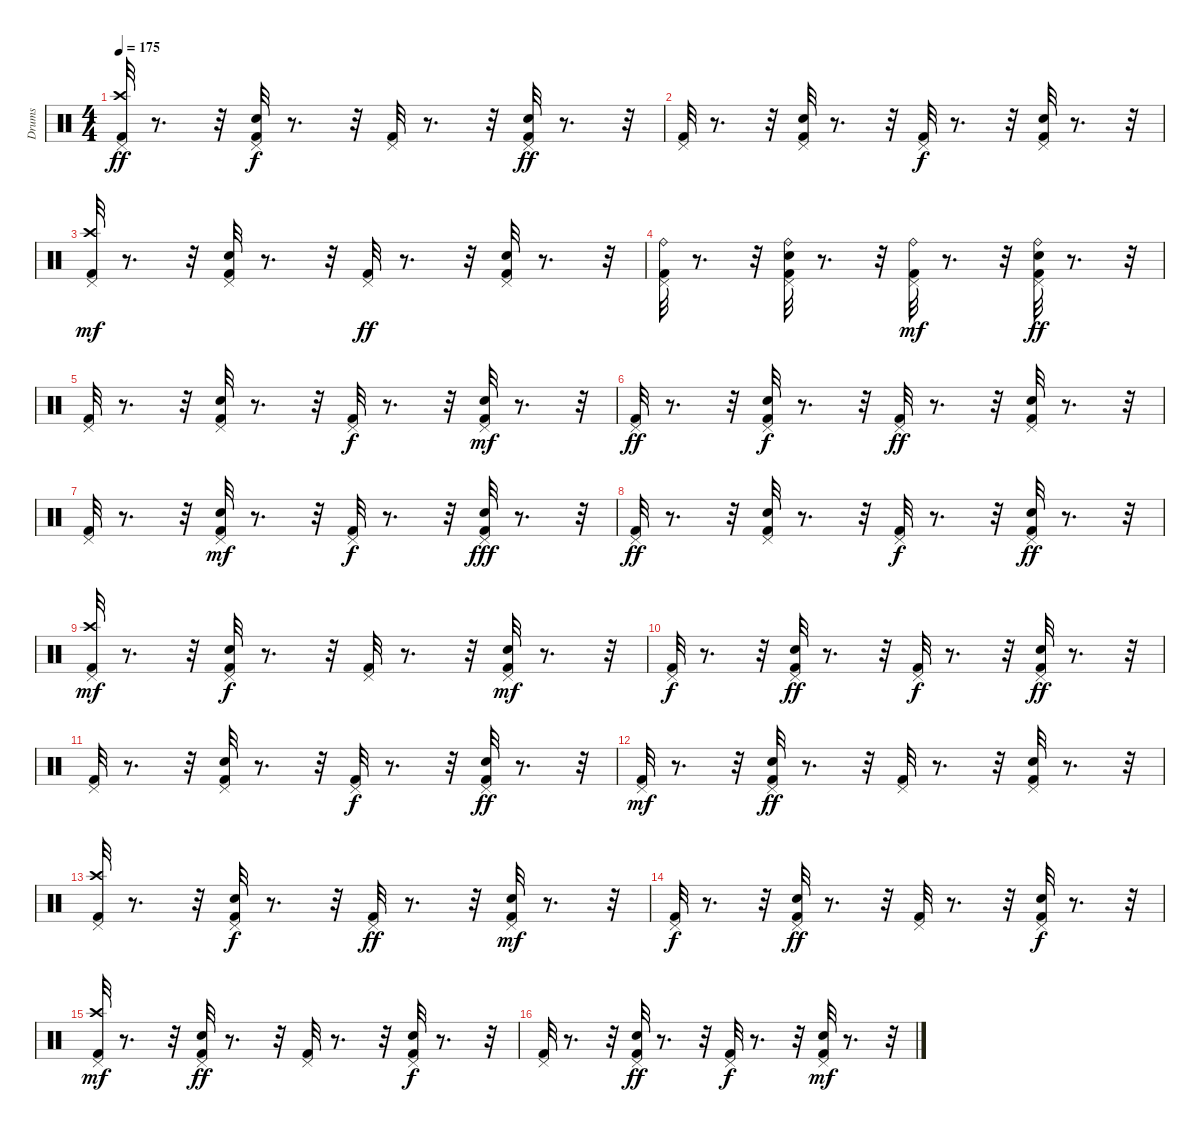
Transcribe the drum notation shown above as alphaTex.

\track ("Drums" "Drums") {instrument percussion}
\staff {score}
\articulation defaults
\ts (4 4)
\tempo 175
\clef neutral
\ks c
("Kick (hit) 2" "Crash high (hit)" "Pedal Hi-Hat (hit)").32{dy ff} r.8{d} r.32 ("Pedal Hi-Hat (hit)" "Snare (hit) 2" "Kick (hit) 2").32{dy f} r.8{d} r.32 ("Kick (hit) 2" "Pedal Hi-Hat (hit)").32 r.8{d} r.32 ("Snare (hit) 2" "Kick (hit) 2" "Pedal Hi-Hat (hit)").32{dy ff} r.8{d} r.32 |
("Pedal Hi-Hat (hit)" "Kick (hit) 2").32 r.8{d} r.32 ("Kick (hit) 2" "Pedal Hi-Hat (hit)" "Snare (hit) 2").32 r.8{d} r.32 ("Kick (hit) 2" "Pedal Hi-Hat (hit)").32{dy f} r.8{d} r.32 ("Pedal Hi-Hat (hit)" "Snare (hit) 2" "Kick (hit) 2").32 r.8{d} r.32 |
("Crash high (hit)" "Pedal Hi-Hat (hit)" "Kick (hit) 2").32{dy mf} r.8{d} r.32 ("Kick (hit) 2" "Pedal Hi-Hat (hit)" "Snare (hit) 2").32 r.8{d} r.32 ("Pedal Hi-Hat (hit)" "Kick (hit) 2").32{dy ff} r.8{d} r.32 ("Pedal Hi-Hat (hit)" "Kick (hit) 2" "Snare (hit) 2").32 r.8{d} r.32 |
("Pedal Hi-Hat (hit)" "Kick (hit) 2" "Ride (bell)").32 r.8{d} r.32 ("Kick (hit) 2" "Pedal Hi-Hat (hit)" "Ride (bell)" "Snare (hit) 2").32 r.8{d} r.32 ("Pedal Hi-Hat (hit)" "Kick (hit) 2" "Ride (bell)").32{dy mf} r.8{d} r.32 ("Snare (hit) 2" "Ride (bell)" "Kick (hit) 2" "Pedal Hi-Hat (hit)").32{dy ff} r.8{d} r.32 |
("Pedal Hi-Hat (hit)" "Kick (hit) 2").32 r.8{d} r.32 ("Pedal Hi-Hat (hit)" "Kick (hit) 2" "Snare (hit) 2").32 r.8{d} r.32 ("Pedal Hi-Hat (hit)" "Kick (hit) 2").32{dy f} r.8{d} r.32 ("Kick (hit) 2" "Pedal Hi-Hat (hit)" "Snare (hit) 2").32{dy mf} r.8{d} r.32 |
("Pedal Hi-Hat (hit)" "Kick (hit) 2").32{dy ff} r.8{d} r.32 ("Kick (hit) 2" "Snare (hit) 2" "Pedal Hi-Hat (hit)").32{dy f} r.8{d} r.32 ("Kick (hit) 2" "Pedal Hi-Hat (hit)").32{dy ff} r.8{d} r.32 ("Pedal Hi-Hat (hit)" "Kick (hit) 2" "Snare (hit) 2").32 r.8{d} r.32 |
("Pedal Hi-Hat (hit)" "Kick (hit) 2").32 r.8{d} r.32 ("Snare (hit) 2" "Pedal Hi-Hat (hit)" "Kick (hit) 2").32{dy mf} r.8{d} r.32 ("Kick (hit) 2" "Pedal Hi-Hat (hit)").32{dy f} r.8{d} r.32 ("Kick (hit) 2" "Snare (hit) 2" "Pedal Hi-Hat (hit)").32{dy fff} r.8{d} r.32 |
("Pedal Hi-Hat (hit)" "Kick (hit) 2").32{dy ff} r.8{d} r.32 ("Snare (hit) 2" "Pedal Hi-Hat (hit)" "Kick (hit) 2").32 r.8{d} r.32 ("Kick (hit) 2" "Pedal Hi-Hat (hit)").32{dy f} r.8{d} r.32 ("Kick (hit) 2" "Snare (hit) 2" "Pedal Hi-Hat (hit)").32{dy ff} r.8{d} r.32 |
("Crash high (hit)" "Pedal Hi-Hat (hit)" "Kick (hit) 2").32{dy mf} r.8{d} r.32 ("Pedal Hi-Hat (hit)" "Kick (hit) 2" "Snare (hit) 2").32{dy f} r.8{d} r.32 ("Kick (hit) 2" "Pedal Hi-Hat (hit)").32 r.8{d} r.32 ("Kick (hit) 2" "Snare (hit) 2" "Pedal Hi-Hat (hit)").32{dy mf} r.8{d} r.32 |
("Pedal Hi-Hat (hit)" "Kick (hit) 2").32{dy f} r.8{d} r.32 ("Pedal Hi-Hat (hit)" "Kick (hit) 2" "Snare (hit) 2").32{dy ff} r.8{d} r.32 ("Pedal Hi-Hat (hit)" "Kick (hit) 2").32{dy f} r.8{d} r.32 ("Pedal Hi-Hat (hit)" "Kick (hit) 2" "Snare (hit) 2").32{dy ff} r.8{d} r.32 |
("Pedal Hi-Hat (hit)" "Kick (hit) 2").32 r.8{d} r.32 ("Pedal Hi-Hat (hit)" "Snare (hit) 2" "Kick (hit) 2").32 r.8{d} r.32 ("Pedal Hi-Hat (hit)" "Kick (hit) 2").32{dy f} r.8{d} r.32 ("Pedal Hi-Hat (hit)" "Kick (hit) 2" "Snare (hit) 2").32{dy ff} r.8{d} r.32 |
("Pedal Hi-Hat (hit)" "Kick (hit) 2").32{dy mf} r.8{d} r.32 ("Kick (hit) 2" "Pedal Hi-Hat (hit)" "Snare (hit) 2").32{dy ff} r.8{d} r.32 ("Kick (hit) 2" "Pedal Hi-Hat (hit)").32 r.8{d} r.32 ("Kick (hit) 2" "Pedal Hi-Hat (hit)" "Snare (hit) 2").32 r.8{d} r.32 |
("Pedal Hi-Hat (hit)" "Crash high (hit)" "Kick (hit) 2").32 r.8{d} r.32 ("Kick (hit) 2" "Snare (hit) 2" "Pedal Hi-Hat (hit)").32{dy f} r.8{d} r.32 ("Pedal Hi-Hat (hit)" "Kick (hit) 2").32{dy ff} r.8{d} r.32 ("Kick (hit) 2" "Snare (hit) 2" "Pedal Hi-Hat (hit)").32{dy mf} r.8{d} r.32 |
("Kick (hit) 2" "Pedal Hi-Hat (hit)").32{dy f} r.8{d} r.32 ("Snare (hit) 2" "Pedal Hi-Hat (hit)" "Kick (hit) 2").32{dy ff} r.8{d} r.32 ("Kick (hit) 2" "Pedal Hi-Hat (hit)").32 r.8{d} r.32 ("Kick (hit) 2" "Pedal Hi-Hat (hit)" "Snare (hit) 2").32{dy f} r.8{d} r.32 |
("Pedal Hi-Hat (hit)" "Crash high (hit)" "Kick (hit) 2").32{dy mf} r.8{d} r.32 ("Kick (hit) 2" "Pedal Hi-Hat (hit)" "Snare (hit) 2").32{dy ff} r.8{d} r.32 ("Pedal Hi-Hat (hit)" "Kick (hit) 2").32 r.8{d} r.32 ("Kick (hit) 2" "Pedal Hi-Hat (hit)" "Snare (hit) 2").32{dy f} r.8{d} r.32 |
("Pedal Hi-Hat (hit)" "Kick (hit) 2").32 r.8{d} r.32 ("Snare (hit) 2" "Pedal Hi-Hat (hit)" "Kick (hit) 2").32{dy ff} r.8{d} r.32 ("Kick (hit) 2" "Pedal Hi-Hat (hit)").32{dy f} r.8{d} r.32 ("Kick (hit) 2" "Pedal Hi-Hat (hit)" "Snare (hit) 2").32{dy mf} r.8{d} r.32
